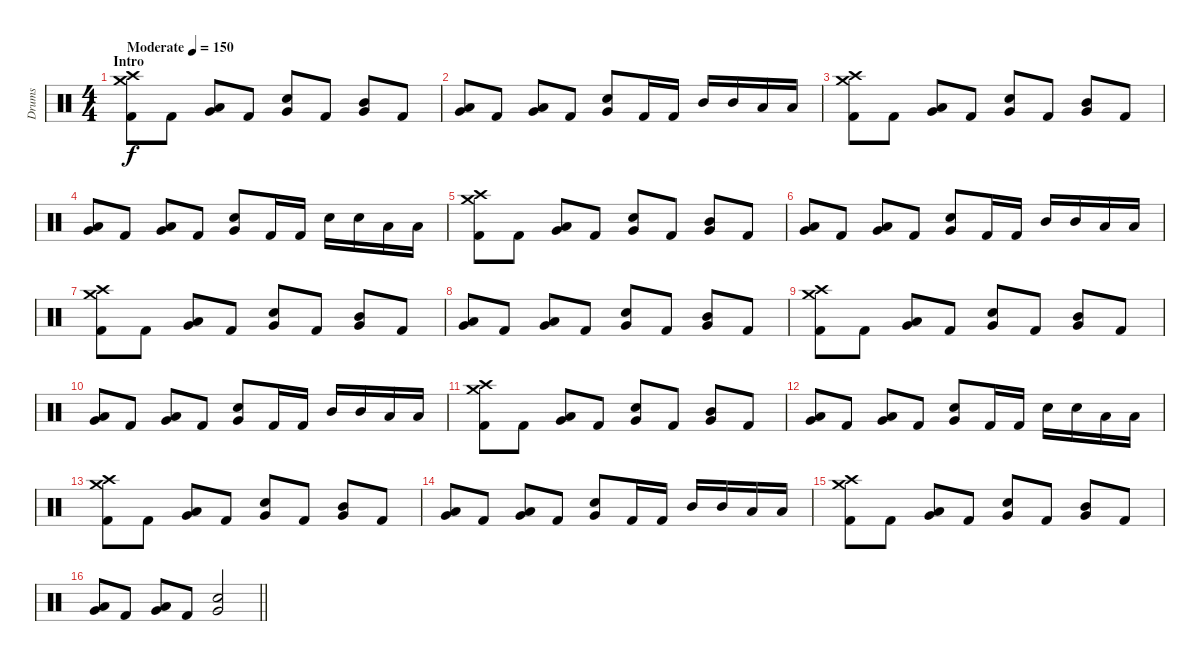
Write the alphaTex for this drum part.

\track ("Drums" "Drums") {instrument percussion}
\staff {score}
\articulation defaults
\ts (4 4)
\section ("" "Intro")
\tempo (150 "Moderate")
\clef neutral
\ks c
("Crash high (hit)" "Crash medium (hit)" "Kick (hit) 2").8{dy f} "Kick (hit) 2".8 ("Low Tom (hit)" "Very Low Tom (hit)").8 "Kick (hit) 2".8 ("Snare (hit) 2" "Very Low Tom (hit)").8 "Kick (hit) 2".8 ("Mid Tom (hit)" "Very Low Tom (hit)").8 "Kick (hit) 2".8 |
("Low Tom (hit)" "Very Low Tom (hit)").8 "Kick (hit) 2".8 ("Low Tom (hit)" "Very Low Tom (hit)").8 "Kick (hit) 2".8 ("Snare (hit) 2" "Very Low Tom (hit)").8 "Kick (hit) 2".16 "Kick (hit) 2".16 "Mid Tom (hit)".16 "Mid Tom (hit)".16 "Low Tom (hit)".16 "Low Tom (hit)".16 |
("Crash high (hit)" "Crash medium (hit)" "Kick (hit) 2").8 "Kick (hit) 2".8 ("Low Tom (hit)" "Very Low Tom (hit)").8 "Kick (hit) 2".8 ("Snare (hit) 2" "Very Low Tom (hit)").8 "Kick (hit) 2".8 ("Mid Tom (hit)" "Very Low Tom (hit)").8 "Kick (hit) 2".8 |
("Low Tom (hit)" "Very Low Tom (hit)").8 "Kick (hit) 2".8 ("Low Tom (hit)" "Very Low Tom (hit)").8 "Kick (hit) 2".8 ("Snare (hit) 2" "Very Low Tom (hit)").8 "Kick (hit) 2".16 "Kick (hit) 2".16 "Snare (hit) 2".16 "Snare (hit) 2".16 "Low Tom (hit)".16 "Low Tom (hit)".16 |
("Crash high (hit)" "Crash medium (hit)" "Kick (hit) 2").8 "Kick (hit) 2".8 ("Low Tom (hit)" "Very Low Tom (hit)").8 "Kick (hit) 2".8 ("Snare (hit) 2" "Very Low Tom (hit)").8 "Kick (hit) 2".8 ("Mid Tom (hit)" "Very Low Tom (hit)").8 "Kick (hit) 2".8 |
("Low Tom (hit)" "Very Low Tom (hit)").8 "Kick (hit) 2".8 ("Low Tom (hit)" "Very Low Tom (hit)").8 "Kick (hit) 2".8 ("Snare (hit) 2" "Very Low Tom (hit)").8 "Kick (hit) 2".16 "Kick (hit) 2".16 "Mid Tom (hit)".16 "Mid Tom (hit)".16 "Low Tom (hit)".16 "Low Tom (hit)".16 |
("Crash high (hit)" "Crash medium (hit)" "Kick (hit) 2").8 "Kick (hit) 2".8 ("Low Tom (hit)" "Very Low Tom (hit)").8 "Kick (hit) 2".8 ("Snare (hit) 2" "Very Low Tom (hit)").8 "Kick (hit) 2".8 ("Mid Tom (hit)" "Very Low Tom (hit)").8 "Kick (hit) 2".8 |
("Low Tom (hit)" "Very Low Tom (hit)").8 "Kick (hit) 2".8 ("Low Tom (hit)" "Very Low Tom (hit)").8 "Kick (hit) 2".8 ("Snare (hit) 2" "Very Low Tom (hit)").8 "Kick (hit) 2".8 ("Mid Tom (hit)" "Very Low Tom (hit)").8 "Kick (hit) 2".8 |
("Crash high (hit)" "Crash medium (hit)" "Kick (hit) 2").8 "Kick (hit) 2".8 ("Low Tom (hit)" "Very Low Tom (hit)").8 "Kick (hit) 2".8 ("Snare (hit) 2" "Very Low Tom (hit)").8 "Kick (hit) 2".8 ("Mid Tom (hit)" "Very Low Tom (hit)").8 "Kick (hit) 2".8 |
("Low Tom (hit)" "Very Low Tom (hit)").8 "Kick (hit) 2".8 ("Low Tom (hit)" "Very Low Tom (hit)").8 "Kick (hit) 2".8 ("Snare (hit) 2" "Very Low Tom (hit)").8 "Kick (hit) 2".16 "Kick (hit) 2".16 "Mid Tom (hit)".16 "Mid Tom (hit)".16 "Low Tom (hit)".16 "Low Tom (hit)".16 |
("Crash high (hit)" "Crash medium (hit)" "Kick (hit) 2").8 "Kick (hit) 2".8 ("Low Tom (hit)" "Very Low Tom (hit)").8 "Kick (hit) 2".8 ("Snare (hit) 2" "Very Low Tom (hit)").8 "Kick (hit) 2".8 ("Mid Tom (hit)" "Very Low Tom (hit)").8 "Kick (hit) 2".8 |
("Low Tom (hit)" "Very Low Tom (hit)").8 "Kick (hit) 2".8 ("Low Tom (hit)" "Very Low Tom (hit)").8 "Kick (hit) 2".8 ("Snare (hit) 2" "Very Low Tom (hit)").8 "Kick (hit) 2".16 "Kick (hit) 2".16 "Snare (hit) 2".16 "Snare (hit) 2".16 "Low Tom (hit)".16 "Low Tom (hit)".16 |
("Crash high (hit)" "Crash medium (hit)" "Kick (hit) 2").8 "Kick (hit) 2".8 ("Low Tom (hit)" "Very Low Tom (hit)").8 "Kick (hit) 2".8 ("Snare (hit) 2" "Very Low Tom (hit)").8 "Kick (hit) 2".8 ("Mid Tom (hit)" "Very Low Tom (hit)").8 "Kick (hit) 2".8 |
("Low Tom (hit)" "Very Low Tom (hit)").8 "Kick (hit) 2".8 ("Low Tom (hit)" "Very Low Tom (hit)").8 "Kick (hit) 2".8 ("Snare (hit) 2" "Very Low Tom (hit)").8 "Kick (hit) 2".16 "Kick (hit) 2".16 "Mid Tom (hit)".16 "Mid Tom (hit)".16 "Low Tom (hit)".16 "Low Tom (hit)".16 |
("Crash high (hit)" "Crash medium (hit)" "Kick (hit) 2").8 "Kick (hit) 2".8 ("Low Tom (hit)" "Very Low Tom (hit)").8 "Kick (hit) 2".8 ("Snare (hit) 2" "Very Low Tom (hit)").8 "Kick (hit) 2".8 ("Mid Tom (hit)" "Very Low Tom (hit)").8 "Kick (hit) 2".8 |
\barLineRight lightlight
("Low Tom (hit)" "Very Low Tom (hit)").8 "Kick (hit) 2".8 ("Low Tom (hit)" "Very Low Tom (hit)").8 "Kick (hit) 2".8 ("Snare (hit) 2" "Very Low Tom (hit)").2
